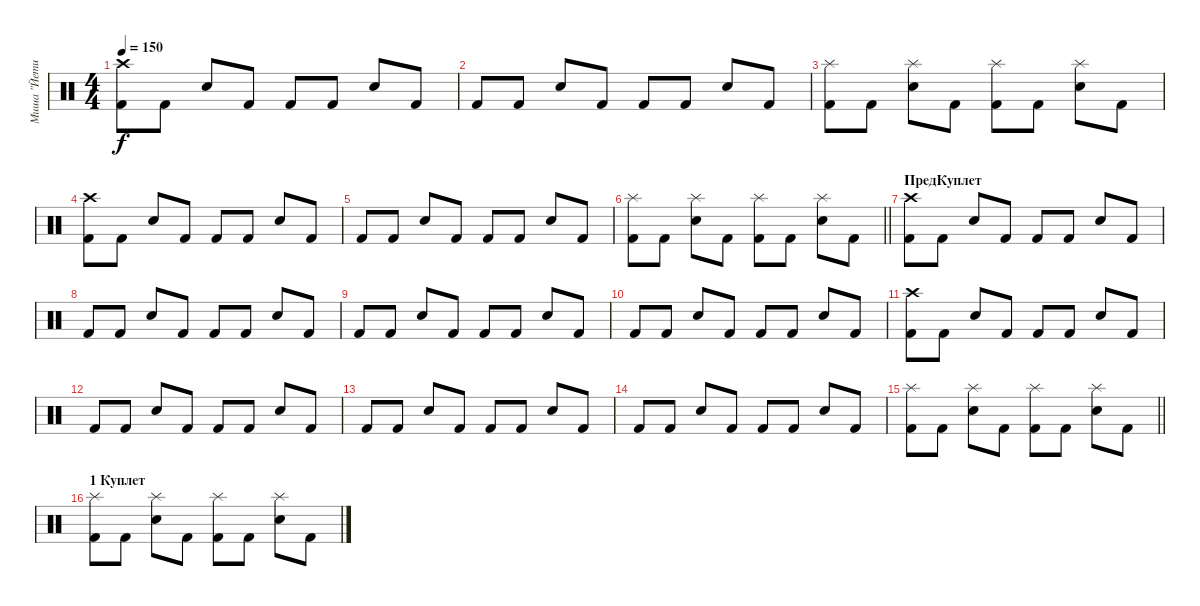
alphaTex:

\track ("Миша \"Йети\" Евсеев" "Миша \"Йети") {instrument percussion}
\staff {score}
\articulation defaults
\ts (4 4)
\tempo 150
\clef neutral
\ks c
("Kick (hit) 2" "Crash high (hit)").8{dy f} "Kick (hit) 2".8 "Snare (hit) 2".8 "Kick (hit) 2".8 "Kick (hit) 2".8 "Kick (hit) 2".8 "Snare (hit) 2".8 "Kick (hit) 2".8 |
"Kick (hit) 2".8 "Kick (hit) 2".8 "Snare (hit) 2".8 "Kick (hit) 2".8 "Kick (hit) 2".8 "Kick (hit) 2".8 "Snare (hit) 2".8 "Kick (hit) 2".8 |
("Kick (hit) 2" "Splash (hit)").8 "Kick (hit) 2".8 ("Snare (hit) 2" "Splash (hit)").8 "Kick (hit) 2".8 ("Kick (hit) 2" "Splash (hit)").8 "Kick (hit) 2".8 ("Snare (hit) 2" "Splash (hit)").8 "Kick (hit) 2".8 |
("Kick (hit) 2" "Crash high (hit)").8 "Kick (hit) 2".8 "Snare (hit) 2".8 "Kick (hit) 2".8 "Kick (hit) 2".8 "Kick (hit) 2".8 "Snare (hit) 2".8 "Kick (hit) 2".8 |
"Kick (hit) 2".8 "Kick (hit) 2".8 "Snare (hit) 2".8 "Kick (hit) 2".8 "Kick (hit) 2".8 "Kick (hit) 2".8 "Snare (hit) 2".8 "Kick (hit) 2".8 |
\barLineRight lightlight
("Kick (hit) 2" "Splash (hit)").8 "Kick (hit) 2".8 ("Snare (hit) 2" "Splash (hit)").8 "Kick (hit) 2".8 ("Kick (hit) 2" "Splash (hit)").8 "Kick (hit) 2".8 ("Snare (hit) 2" "Splash (hit)").8 "Kick (hit) 2".8 |
\section ("" "ПредКуплет")
("Kick (hit) 2" "Crash high (hit)").8 "Kick (hit) 2".8 "Snare (hit) 2".8 "Kick (hit) 2".8 "Kick (hit) 2".8 "Kick (hit) 2".8 "Snare (hit) 2".8 "Kick (hit) 2".8 |
"Kick (hit) 2".8 "Kick (hit) 2".8 "Snare (hit) 2".8 "Kick (hit) 2".8 "Kick (hit) 2".8 "Kick (hit) 2".8 "Snare (hit) 2".8 "Kick (hit) 2".8 |
"Kick (hit) 2".8 "Kick (hit) 2".8 "Snare (hit) 2".8 "Kick (hit) 2".8 "Kick (hit) 2".8 "Kick (hit) 2".8 "Snare (hit) 2".8 "Kick (hit) 2".8 |
"Kick (hit) 2".8 "Kick (hit) 2".8 "Snare (hit) 2".8 "Kick (hit) 2".8 "Kick (hit) 2".8 "Kick (hit) 2".8 "Snare (hit) 2".8 "Kick (hit) 2".8 |
("Kick (hit) 2" "Crash high (hit)").8 "Kick (hit) 2".8 "Snare (hit) 2".8 "Kick (hit) 2".8 "Kick (hit) 2".8 "Kick (hit) 2".8 "Snare (hit) 2".8 "Kick (hit) 2".8 |
"Kick (hit) 2".8 "Kick (hit) 2".8 "Snare (hit) 2".8 "Kick (hit) 2".8 "Kick (hit) 2".8 "Kick (hit) 2".8 "Snare (hit) 2".8 "Kick (hit) 2".8 |
"Kick (hit) 2".8 "Kick (hit) 2".8 "Snare (hit) 2".8 "Kick (hit) 2".8 "Kick (hit) 2".8 "Kick (hit) 2".8 "Snare (hit) 2".8 "Kick (hit) 2".8 |
"Kick (hit) 2".8 "Kick (hit) 2".8 "Snare (hit) 2".8 "Kick (hit) 2".8 "Kick (hit) 2".8 "Kick (hit) 2".8 "Snare (hit) 2".8 "Kick (hit) 2".8 |
\barLineRight lightlight
("Kick (hit) 2" "Splash (hit)").8 "Kick (hit) 2".8 ("Snare (hit) 2" "Splash (hit)").8 "Kick (hit) 2".8 ("Kick (hit) 2" "Splash (hit)").8 "Kick (hit) 2".8 ("Snare (hit) 2" "Splash (hit)").8 "Kick (hit) 2".8 |
\section ("" "1 Куплет")
("Kick (hit) 2" "Splash (hit)").8 "Kick (hit) 2".8 ("Snare (hit) 2" "Splash (hit)").8 "Kick (hit) 2".8 ("Kick (hit) 2" "Splash (hit)").8 "Kick (hit) 2".8 ("Snare (hit) 2" "Splash (hit)").8 "Kick (hit) 2".8
